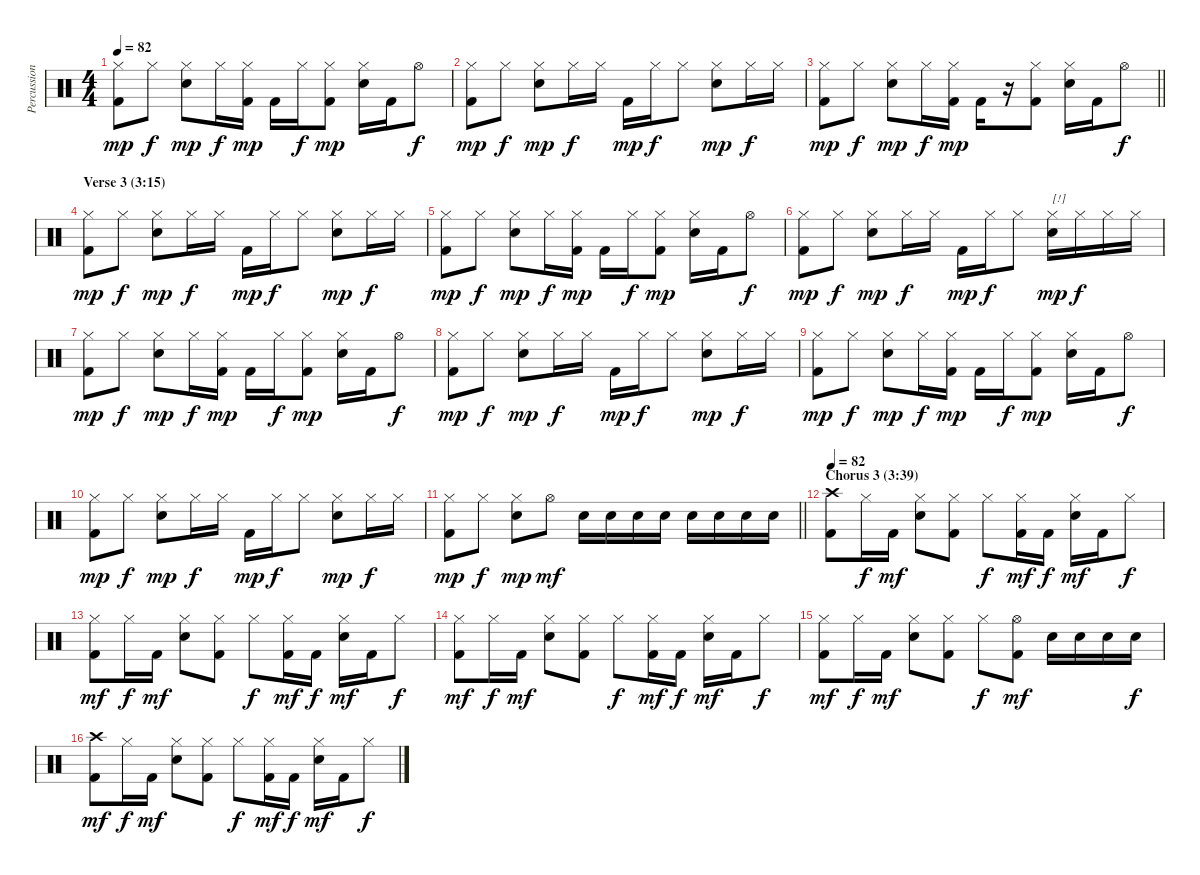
\track ("Percussion" "Percussion") {instrument percussion}
\staff {score}
\articulation defaults
\ts (4 4)
\tempo 82
\clef neutral
\ks c
("Hi-Hat (closed)" "Kick (hit) 2").8{dy mp} "Hi-Hat (closed)".8{dy f} ("Hi-Hat (closed)" "Electric Snare (hit)").8{dy mp} "Hi-Hat (closed)".16{dy f} ("Hi-Hat (closed)" "Kick (hit) 2").16{dy mp} "Kick (hit) 2".16 "Hi-Hat (closed)".16{dy f} ("Hi-Hat (closed)" "Kick (hit) 2").8{dy mp} ("Hi-Hat (closed)" "Electric Snare (hit)").16 "Kick (hit) 2".16 "Hi-Hat (open)".8{dy f} |
("Hi-Hat (closed)" "Kick (hit) 2").8{dy mp} "Hi-Hat (closed)".8{dy f} ("Hi-Hat (closed)" "Electric Snare (hit)").8{dy mp} "Hi-Hat (closed)".16{dy f} "Hi-Hat (closed)".16 "Kick (hit) 2".16{dy mp} "Hi-Hat (closed)".16{dy f} "Hi-Hat (closed)".8 ("Hi-Hat (closed)" "Electric Snare (hit)").8{dy mp} "Hi-Hat (closed)".16{dy f} "Hi-Hat (closed)".16 |
\barLineRight lightlight
("Hi-Hat (closed)" "Kick (hit) 2").8{dy mp} "Hi-Hat (closed)".8{dy f} ("Hi-Hat (closed)" "Electric Snare (hit)").8{dy mp} "Hi-Hat (closed)".16{dy f} ("Hi-Hat (closed)" "Kick (hit) 2").16{dy mp} "Kick (hit) 2".16 r.16 ("Hi-Hat (closed)" "Kick (hit) 2").8 ("Hi-Hat (closed)" "Electric Snare (hit)").16 "Kick (hit) 2".16 "Hi-Hat (open)".8{dy f} |
\section ("" "Verse 3 (3:15)")
("Hi-Hat (closed)" "Kick (hit) 2").8{dy mp} "Hi-Hat (closed)".8{dy f} ("Hi-Hat (closed)" "Electric Snare (hit)").8{dy mp} "Hi-Hat (closed)".16{dy f} "Hi-Hat (closed)".16 "Kick (hit) 2".16{dy mp} "Hi-Hat (closed)".16{dy f} "Hi-Hat (closed)".8 ("Hi-Hat (closed)" "Electric Snare (hit)").8{dy mp} "Hi-Hat (closed)".16{dy f} "Hi-Hat (closed)".16 |
("Hi-Hat (closed)" "Kick (hit) 2").8{dy mp} "Hi-Hat (closed)".8{dy f} ("Hi-Hat (closed)" "Electric Snare (hit)").8{dy mp} "Hi-Hat (closed)".16{dy f} ("Hi-Hat (closed)" "Kick (hit) 2").16{dy mp} "Kick (hit) 2".16 "Hi-Hat (closed)".16{dy f} ("Hi-Hat (closed)" "Kick (hit) 2").8{dy mp} ("Hi-Hat (closed)" "Electric Snare (hit)").16 "Kick (hit) 2".16 "Hi-Hat (open)".8{dy f} |
("Hi-Hat (closed)" "Kick (hit) 2").8{dy mp} "Hi-Hat (closed)".8{dy f} ("Hi-Hat (closed)" "Electric Snare (hit)").8{dy mp} "Hi-Hat (closed)".16{dy f} "Hi-Hat (closed)".16 "Kick (hit) 2".16{dy mp} "Hi-Hat (closed)".16{dy f} "Hi-Hat (closed)".8 ("Hi-Hat (closed)" "Electric Snare (hit)").16{txt "[!]" dy mp} "Hi-Hat (closed)".16{dy f} "Hi-Hat (closed)".16 "Hi-Hat (closed)".16 |
("Hi-Hat (closed)" "Kick (hit) 2").8{dy mp} "Hi-Hat (closed)".8{dy f} ("Hi-Hat (closed)" "Electric Snare (hit)").8{dy mp} "Hi-Hat (closed)".16{dy f} ("Hi-Hat (closed)" "Kick (hit) 2").16{dy mp} "Kick (hit) 2".16 "Hi-Hat (closed)".16{dy f} ("Hi-Hat (closed)" "Kick (hit) 2").8{dy mp} ("Hi-Hat (closed)" "Electric Snare (hit)").16 "Kick (hit) 2".16 "Hi-Hat (open)".8{dy f} |
("Hi-Hat (closed)" "Kick (hit) 2").8{dy mp} "Hi-Hat (closed)".8{dy f} ("Hi-Hat (closed)" "Electric Snare (hit)").8{dy mp} "Hi-Hat (closed)".16{dy f} "Hi-Hat (closed)".16 "Kick (hit) 2".16{dy mp} "Hi-Hat (closed)".16{dy f} "Hi-Hat (closed)".8 ("Hi-Hat (closed)" "Electric Snare (hit)").8{dy mp} "Hi-Hat (closed)".16{dy f} "Hi-Hat (closed)".16 |
("Hi-Hat (closed)" "Kick (hit) 2").8{dy mp} "Hi-Hat (closed)".8{dy f} ("Hi-Hat (closed)" "Electric Snare (hit)").8{dy mp} "Hi-Hat (closed)".16{dy f} ("Hi-Hat (closed)" "Kick (hit) 2").16{dy mp} "Kick (hit) 2".16 "Hi-Hat (closed)".16{dy f} ("Hi-Hat (closed)" "Kick (hit) 2").8{dy mp} ("Hi-Hat (closed)" "Electric Snare (hit)").16 "Kick (hit) 2".16 "Hi-Hat (open)".8{dy f} |
("Hi-Hat (closed)" "Kick (hit) 2").8{dy mp} "Hi-Hat (closed)".8{dy f} ("Hi-Hat (closed)" "Electric Snare (hit)").8{dy mp} "Hi-Hat (closed)".16{dy f} "Hi-Hat (closed)".16 "Kick (hit) 2".16{dy mp} "Hi-Hat (closed)".16{dy f} "Hi-Hat (closed)".8 ("Hi-Hat (closed)" "Electric Snare (hit)").8{dy mp} "Hi-Hat (closed)".16{dy f} "Hi-Hat (closed)".16 |
\barLineRight lightlight
("Hi-Hat (closed)" "Kick (hit) 2").8{dy mp} "Hi-Hat (closed)".8{dy f} ("Hi-Hat (closed)" "Electric Snare (hit)").8{dy mp} "Hi-Hat (open)".8{dy mf} "Electric Snare (hit)".16 "Electric Snare (hit)".16 "Electric Snare (hit)".16 "Electric Snare (hit)".16 "Snare (hit) 2".16 "Snare (hit) 2".16 "Snare (hit) 2".16 "Snare (hit) 2".16 |
\section ("" "Chorus 3 (3:39)")
\tempo 82
("Crash high (hit)" "Kick (hit) 2").8 "Hi-Hat (closed)".16{dy f} "Kick (hit) 2".16{dy mf} ("Hi-Hat (closed)" "Electric Snare (hit)").8 ("Hi-Hat (closed)" "Kick (hit) 2").8 "Hi-Hat (closed)".8{dy f} ("Hi-Hat (closed)" "Kick (hit) 2").16{dy mf} "Kick (hit) 2".16{dy f} ("Hi-Hat (closed)" "Electric Snare (hit)").16{dy mf} "Kick (hit) 2".16 "Hi-Hat (closed)".8{dy f} |
("Hi-Hat (closed)" "Kick (hit) 2").8{dy mf} "Hi-Hat (closed)".16{dy f} "Kick (hit) 2".16{dy mf} ("Hi-Hat (closed)" "Electric Snare (hit)").8 ("Hi-Hat (closed)" "Kick (hit) 2").8 "Hi-Hat (closed)".8{dy f} ("Hi-Hat (closed)" "Kick (hit) 2").16{dy mf} "Kick (hit) 2".16{dy f} ("Hi-Hat (closed)" "Electric Snare (hit)").16{dy mf} "Kick (hit) 2".16 "Hi-Hat (closed)".8{dy f} |
("Hi-Hat (closed)" "Kick (hit) 2").8{dy mf} "Hi-Hat (closed)".16{dy f} "Kick (hit) 2".16{dy mf} ("Hi-Hat (closed)" "Electric Snare (hit)").8 ("Hi-Hat (closed)" "Kick (hit) 2").8 "Hi-Hat (closed)".8{dy f} ("Hi-Hat (closed)" "Kick (hit) 2").16{dy mf} "Kick (hit) 2".16{dy f} ("Hi-Hat (closed)" "Electric Snare (hit)").16{dy mf} "Kick (hit) 2".16 "Hi-Hat (closed)".8{dy f} |
("Hi-Hat (closed)" "Kick (hit) 2").8{dy mf} "Hi-Hat (closed)".16{dy f} "Kick (hit) 2".16{dy mf} ("Hi-Hat (closed)" "Electric Snare (hit)").8 ("Hi-Hat (closed)" "Kick (hit) 2").8 "Hi-Hat (closed)".8{dy f} ("Hi-Hat (open)" "Kick (hit) 2").8{dy mf} "Electric Snare (hit)".16 "Electric Snare (hit)".16 "Snare (hit) 2".16 "Snare (hit) 2".16{dy f} |
("Crash high (hit)" "Kick (hit) 2").8{dy mf} "Hi-Hat (closed)".16{dy f} "Kick (hit) 2".16{dy mf} ("Hi-Hat (closed)" "Electric Snare (hit)").8 ("Hi-Hat (closed)" "Kick (hit) 2").8 "Hi-Hat (closed)".8{dy f} ("Hi-Hat (closed)" "Kick (hit) 2").16{dy mf} "Kick (hit) 2".16{dy f} ("Hi-Hat (closed)" "Electric Snare (hit)").16{dy mf} "Kick (hit) 2".16 "Hi-Hat (closed)".8{dy f}
